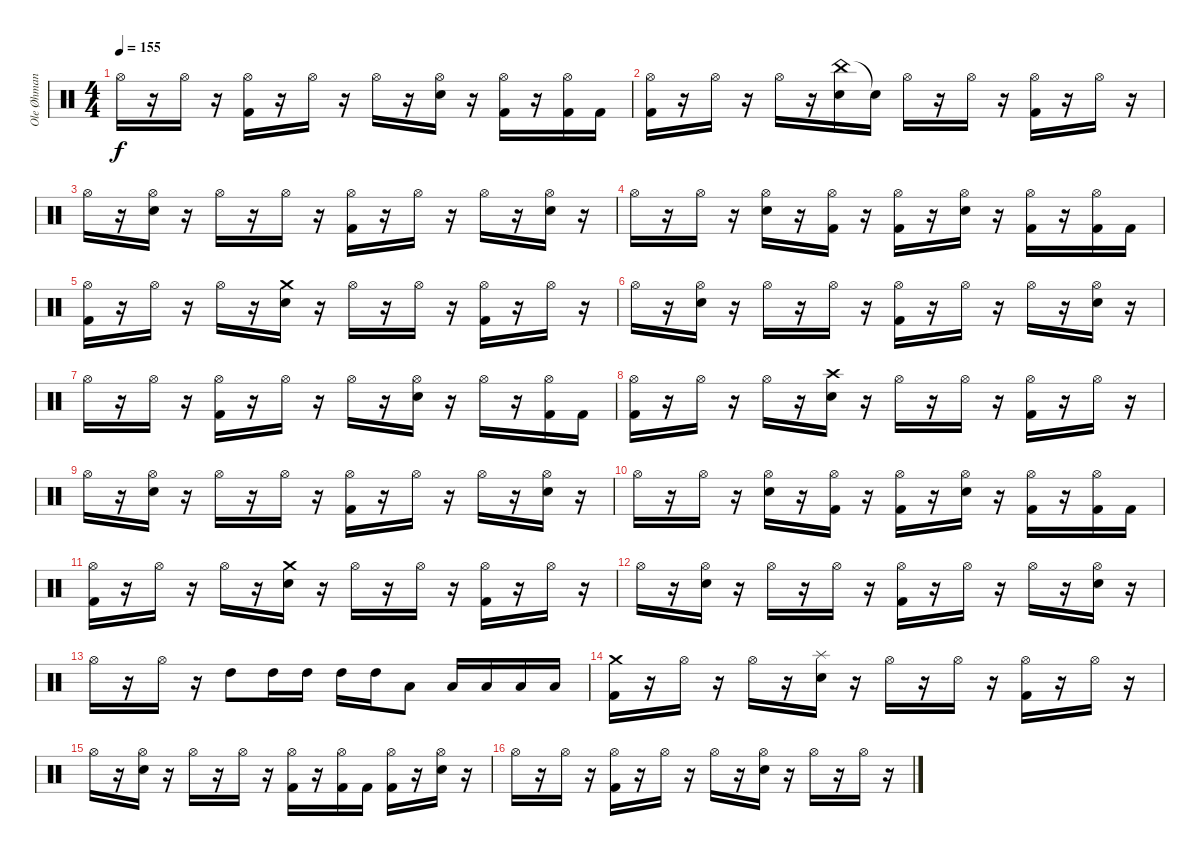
\track ("Ole Øhman (Trommur)" "Ole Øhman ") {instrument percussion}
\staff {score}
\articulation defaults
\ts (4 4)
\tempo 155
\clef neutral
\ks c "Hi-Hat (open)".16{dy f}
r.16 "Hi-Hat (open)".16 r.16 ("Hi-Hat (open)" "Kick (hit) 2").16 r.16 "Hi-Hat (open)".16 r.16 "Hi-Hat (open)".16 r.16 ("Hi-Hat (open)" "Electric Snare (hit)").16 r.16 ("Hi-Hat (open)" "Kick (hit) 2").16 r.16 ("Hi-Hat (open)" "Kick (hit) 2").16 "Kick (hit) 2".16 |
("Hi-Hat (open)" "Kick (hit) 2").16 r.16 "Hi-Hat (open)".16 r.16 "Hi-Hat (open)".16 r.16 ("China (hit)" "Electric Snare (hit)").16 "Snare (hit)"{t}.16 "Hi-Hat (open)".16 r.16 "Hi-Hat (open)".16 r.16 ("Hi-Hat (open)" "Kick (hit) 2").16 r.16 "Hi-Hat (open)".16 r.16 |
"Hi-Hat (open)".16 r.16 ("Hi-Hat (open)" "Electric Snare (hit)").16 r.16 "Hi-Hat (open)".16 r.16 "Hi-Hat (open)".16 r.16 ("Hi-Hat (open)" "Kick (hit) 2").16 r.16 "Hi-Hat (open)".16 r.16 "Hi-Hat (open)".16 r.16 ("Hi-Hat (open)" "Electric Snare (hit)").16 r.16 |
"Hi-Hat (open)".16 r.16 "Hi-Hat (open)".16 r.16 ("Hi-Hat (open)" "Electric Snare (hit)").16 r.16 ("Hi-Hat (open)" "Kick (hit) 2").16 r.16 ("Hi-Hat (open)" "Kick (hit) 2").16 r.16 ("Hi-Hat (open)" "Electric Snare (hit)").16 r.16 ("Hi-Hat (open)" "Kick (hit) 2").16 r.16 ("Hi-Hat (open)" "Kick (hit) 2").16 "Kick (hit) 2".16 |
("Hi-Hat (open)" "Kick (hit) 2").16 r.16 "Hi-Hat (open)".16 r.16 "Hi-Hat (open)".16 r.16 ("Crash medium (hit)" "Electric Snare (hit)").16 r.16 "Hi-Hat (open)".16 r.16 "Hi-Hat (open)".16 r.16 ("Hi-Hat (open)" "Kick (hit) 2").16 r.16 "Hi-Hat (open)".16 r.16 |
"Hi-Hat (open)".16 r.16 ("Hi-Hat (open)" "Electric Snare (hit)").16 r.16 "Hi-Hat (open)".16 r.16 "Hi-Hat (open)".16 r.16 ("Hi-Hat (open)" "Kick (hit) 2").16 r.16 "Hi-Hat (open)".16 r.16 "Hi-Hat (open)".16 r.16 ("Hi-Hat (open)" "Electric Snare (hit)").16 r.16 |
"Hi-Hat (open)".16 r.16 "Hi-Hat (open)".16 r.16 ("Hi-Hat (open)" "Kick (hit) 2").16 r.16 "Hi-Hat (open)".16 r.16 "Hi-Hat (open)".16 r.16 ("Hi-Hat (open)" "Electric Snare (hit)").16 r.16 "Hi-Hat (open)".16 r.16 ("Hi-Hat (open)" "Kick (hit) 2").16 "Kick (hit) 2".16 |
("Hi-Hat (open)" "Kick (hit) 2").16 r.16 "Hi-Hat (open)".16 r.16 "Hi-Hat (open)".16 r.16 ("Crash high (hit)" "Electric Snare (hit)").16 r.16 "Hi-Hat (open)".16 r.16 "Hi-Hat (open)".16 r.16 ("Hi-Hat (open)" "Kick (hit) 2").16 r.16 "Hi-Hat (open)".16 r.16 |
"Hi-Hat (open)".16 r.16 ("Hi-Hat (open)" "Electric Snare (hit)").16 r.16 "Hi-Hat (open)".16 r.16 "Hi-Hat (open)".16 r.16 ("Hi-Hat (open)" "Kick (hit) 2").16 r.16 "Hi-Hat (open)".16 r.16 "Hi-Hat (open)".16 r.16 ("Hi-Hat (open)" "Electric Snare (hit)").16 r.16 |
"Hi-Hat (open)".16 r.16 "Hi-Hat (open)".16 r.16 ("Hi-Hat (open)" "Electric Snare (hit)").16 r.16 ("Hi-Hat (open)" "Kick (hit) 2").16 r.16 ("Hi-Hat (open)" "Kick (hit) 2").16 r.16 ("Hi-Hat (open)" "Electric Snare (hit)").16 r.16 ("Hi-Hat (open)" "Kick (hit) 2").16 r.16 ("Hi-Hat (open)" "Kick (hit) 2").16 "Kick (hit) 2".16 |
("Hi-Hat (open)" "Kick (hit) 2").16 r.16 "Hi-Hat (open)".16 r.16 "Hi-Hat (open)".16 r.16 ("Crash medium (hit)" "Electric Snare (hit)").16 r.16 "Hi-Hat (open)".16 r.16 "Hi-Hat (open)".16 r.16 ("Hi-Hat (open)" "Kick (hit) 2").16 r.16 "Hi-Hat (open)".16 r.16 |
"Hi-Hat (open)".16 r.16 ("Hi-Hat (open)" "Electric Snare (hit)").16 r.16 "Hi-Hat (open)".16 r.16 "Hi-Hat (open)".16 r.16 ("Hi-Hat (open)" "Kick (hit) 2").16 r.16 "Hi-Hat (open)".16 r.16 "Hi-Hat (open)".16 r.16 ("Hi-Hat (open)" "Electric Snare (hit)").16 r.16 |
"Hi-Hat (open)".16 r.16 "Hi-Hat (open)".16 r.16 "High Tom (hit)".8 "High Tom (hit)".16 "High Tom (hit)".16 "High Tom (hit)".16 "High Tom (hit)".16 "Low Tom (hit)".8 "Low Tom (hit)".16 "Low Tom (hit)".16 "Low Tom (hit)".16 "Low Tom (hit)".16 |
("Crash medium (hit)" "Kick (hit) 2").16 r.16 "Hi-Hat (open)".16 r.16 "Hi-Hat (open)".16 r.16 ("Splash (hit)" "Electric Snare (hit)").16 r.16 "Hi-Hat (open)".16 r.16 "Hi-Hat (open)".16 r.16 ("Hi-Hat (open)" "Kick (hit) 2").16 r.16 "Hi-Hat (open)".16 r.16 |
"Hi-Hat (open)".16 r.16 ("Hi-Hat (open)" "Electric Snare (hit)").16 r.16 "Hi-Hat (open)".16 r.16 "Hi-Hat (open)".16 r.16 ("Hi-Hat (open)" "Kick (hit) 2").16 r.16 ("Hi-Hat (open)" "Kick (hit) 2").16 "Kick (hit) 2".16 ("Hi-Hat (open)" "Kick (hit) 2").16 r.16 ("Hi-Hat (open)" "Electric Snare (hit)").16 r.16 |
"Hi-Hat (open)".16 r.16 "Hi-Hat (open)".16 r.16 ("Hi-Hat (open)" "Kick (hit) 2").16 r.16 "Hi-Hat (open)".16 r.16 "Hi-Hat (open)".16 r.16 ("Hi-Hat (open)" "Electric Snare (hit)").16 r.16 "Hi-Hat (open)".16 r.16 "Hi-Hat (open)".16 r.16
